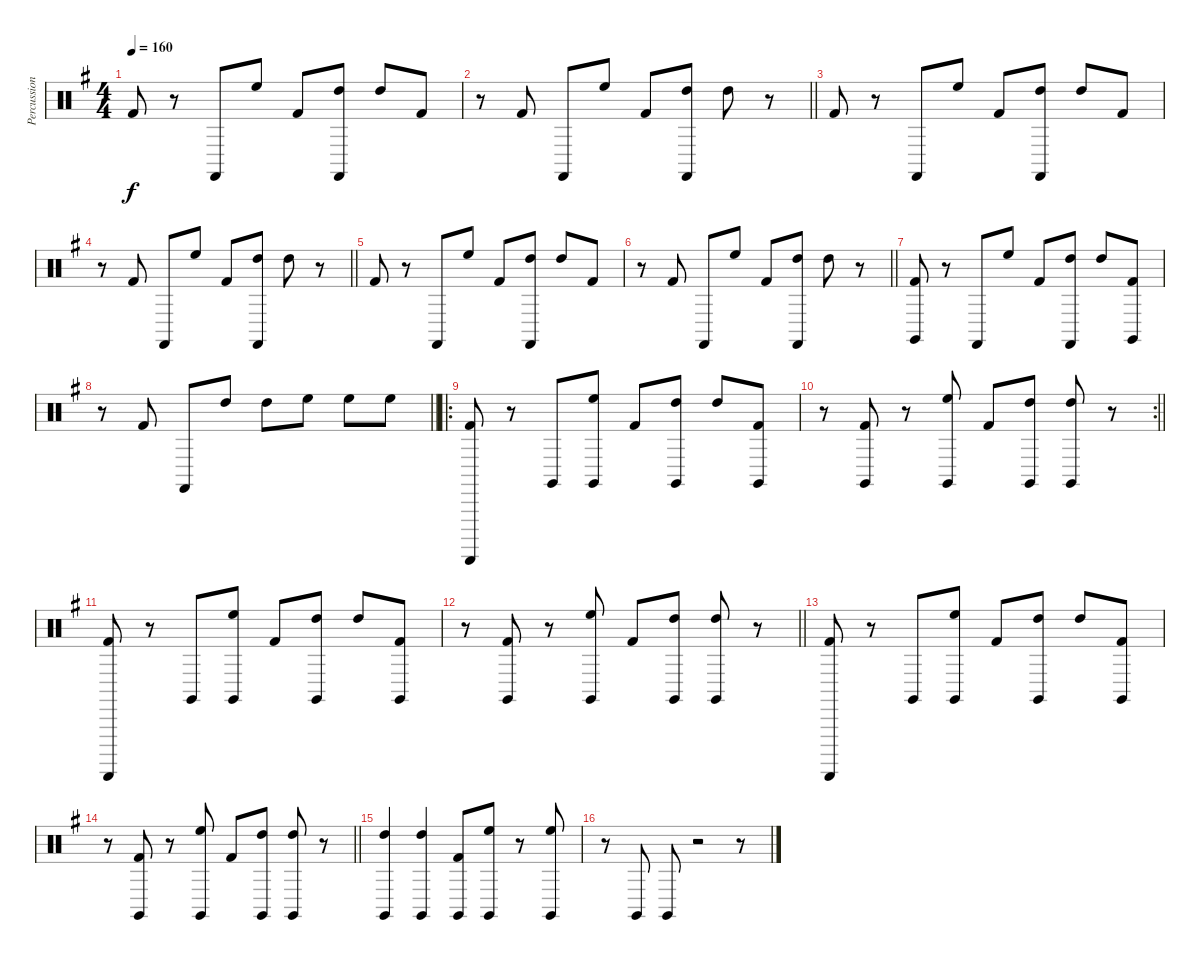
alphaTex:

\track ("Percussion" "Percussion") {instrument percussion}
\staff {score}
\articulation defaults
\ts (4 4)
\tempo 160
\clef neutral
\ks g "Kick (hit) 2".8{dy f}
r.8 "Castanets (hit)".8 "High Floor Tom (hit)".8 "Kick (hit) 2".8 ("High Tom (hit)" "Castanets (hit)").8 "High Tom (hit)".8 "Kick (hit) 2".8 |
\barLineRight lightlight
r.8 "Kick (hit) 2".8 "Castanets (hit)".8 "High Floor Tom (hit)".8 "Kick (hit) 2".8 ("High Tom (hit)" "Castanets (hit)").8 "High Tom (hit)".8 r.8 |
"Kick (hit) 2".8 r.8 "Castanets (hit)".8 "High Floor Tom (hit)".8 "Kick (hit) 2".8 ("High Tom (hit)" "Castanets (hit)").8 "High Tom (hit)".8 "Kick (hit) 2".8 |
\barLineRight lightlight
r.8 "Kick (hit) 2".8 "Castanets (hit)".8 "High Floor Tom (hit)".8 "Kick (hit) 2".8 ("High Tom (hit)" "Castanets (hit)").8 "High Tom (hit)".8 r.8 |
"Kick (hit) 2".8 r.8 "Castanets (hit)".8 "High Floor Tom (hit)".8 "Kick (hit) 2".8 ("High Tom (hit)" "Castanets (hit)").8 "High Tom (hit)".8 "Kick (hit) 2".8 |
\barLineRight lightlight
r.8 "Kick (hit) 2".8 "Castanets (hit)".8 "High Floor Tom (hit)".8 "Kick (hit) 2".8 ("High Tom (hit)" "Castanets (hit)").8 "High Tom (hit)".8 r.8 |
("Claves (hit)" "Kick (hit) 2").8 r.8 "Castanets (hit)".8 "High Floor Tom (hit)".8 "Kick (hit) 2".8 ("High Tom (hit)" "Castanets (hit)").8 "High Tom (hit)".8 ("Claves (hit)" "Kick (hit) 2").8 |
\barLineRight lightlight
r.8 "Kick (hit) 2".8 "Castanets (hit)".8 "High Tom (hit)".8 "High Tom (hit)".8 "High Floor Tom (hit)".8 "High Floor Tom (hit)".8 "High Floor Tom (hit)".8 |
\ro
("Guiro (scrap-return)" "Kick (hit) 2").8 r.8 "Claves (hit)".8 ("High Floor Tom (hit)" "Claves (hit)").8 "Kick (hit) 2".8 ("High Tom (hit)" "Claves (hit)").8 "High Tom (hit)".8 ("Claves (hit)" "Kick (hit) 2").8 |
\rc 2
\barLineRight lightlight
r.8 ("Claves (hit)" "Kick (hit) 2").8 r.8 ("High Floor Tom (hit)" "Claves (hit)").8 "Kick (hit) 2".8 ("High Tom (hit)" "Claves (hit)").8 ("High Tom (hit)" "Claves (hit)").8 r.8 |
("Guiro (scrap-return)" "Kick (hit) 2").8 r.8 "Claves (hit)".8 ("High Floor Tom (hit)" "Claves (hit)").8 "Kick (hit) 2".8 ("High Tom (hit)" "Claves (hit)").8 "High Tom (hit)".8 ("Claves (hit)" "Kick (hit) 2").8 |
\barLineRight lightlight
r.8 ("Claves (hit)" "Kick (hit) 2").8 r.8 ("High Floor Tom (hit)" "Claves (hit)").8 "Kick (hit) 2".8 ("High Tom (hit)" "Claves (hit)").8 ("High Tom (hit)" "Claves (hit)").8 r.8 |
("Guiro (scrap-return)" "Kick (hit) 2").8 r.8 "Claves (hit)".8 ("High Floor Tom (hit)" "Claves (hit)").8 "Kick (hit) 2".8 ("High Tom (hit)" "Claves (hit)").8 "High Tom (hit)".8 ("Claves (hit)" "Kick (hit) 2").8 |
\barLineRight lightlight
r.8 ("Claves (hit)" "Kick (hit) 2").8 r.8 ("High Floor Tom (hit)" "Claves (hit)").8 "Kick (hit) 2".8 ("High Tom (hit)" "Claves (hit)").8 ("High Tom (hit)" "Claves (hit)").8 r.8 |
("Claves (hit)" "High Tom (hit)").4 ("Claves (hit)" "High Tom (hit)").4 ("Claves (hit)" "Kick (hit) 2").8 ("Claves (hit)" "High Floor Tom (hit)").8 r.8 ("Claves (hit)" "High Floor Tom (hit)").8 |
r.8 "Claves (hit)".8 "Claves (hit)".8 r.2 r.8
